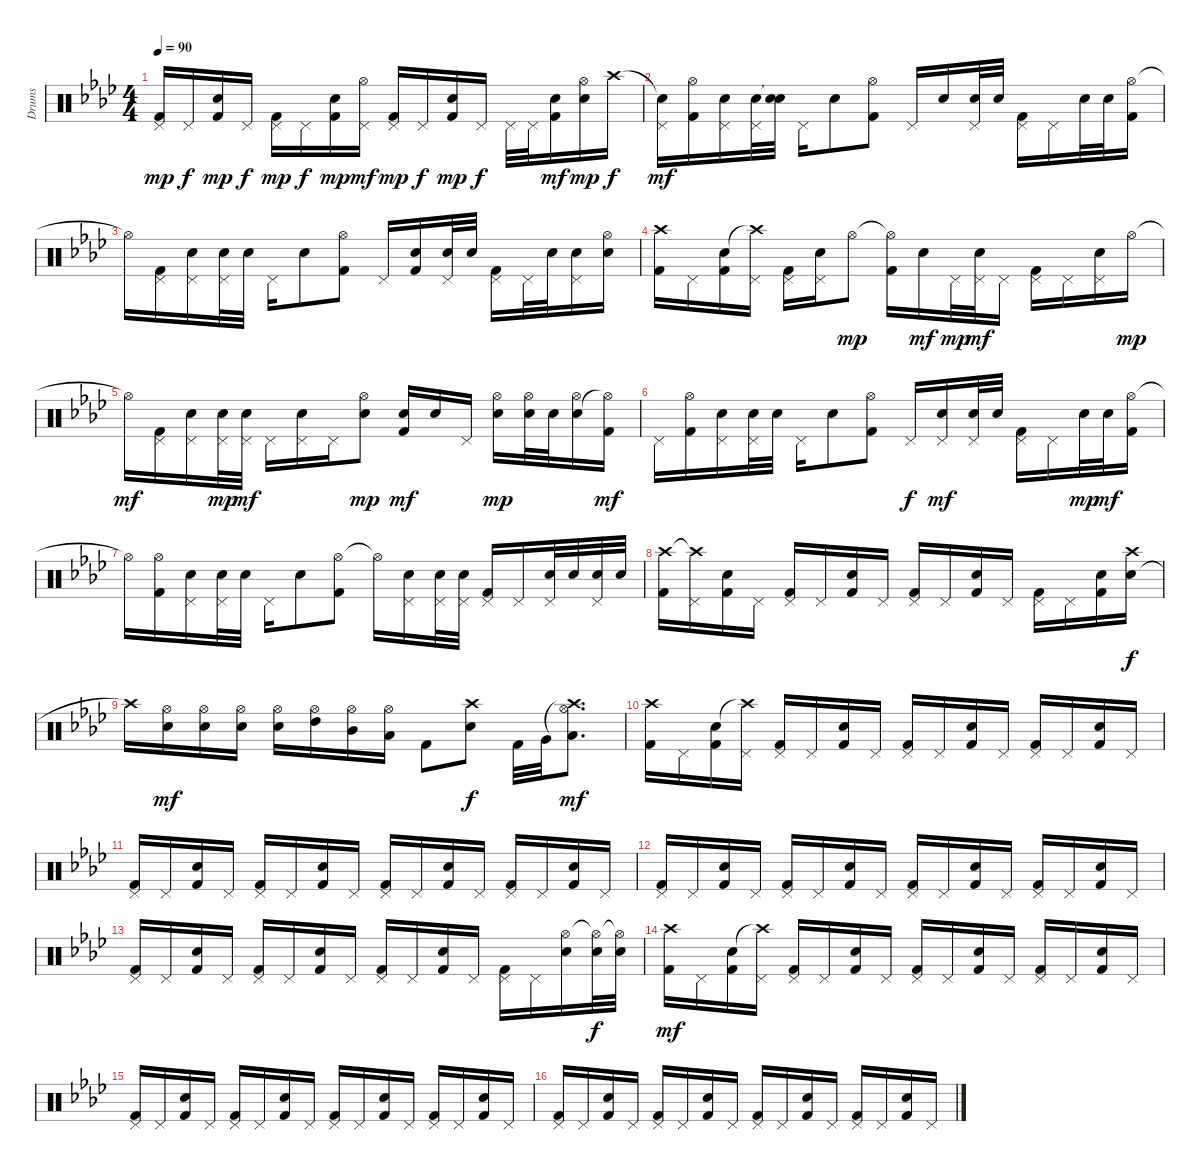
\track ("Drums" "Drums") {instrument percussion}
\staff {score}
\articulation defaults
\ts (4 4)
\tempo 90
\clef neutral
\ks ab
("Pedal Hi-Hat (hit)" "Kick (hit) 2").16{dy mp} "Pedal Hi-Hat (hit)".16{dy f} ("Snare (hit) 2" "Kick (hit) 2").16{dy mp} "Pedal Hi-Hat (hit)".16{dy f} ("Pedal Hi-Hat (hit)" "Kick (hit) 2").16{dy mp} "Pedal Hi-Hat (hit)".16{dy f} ("Snare (hit) 2" "Kick (hit) 2").16{dy mp} ("Hi-Hat (open)" "Pedal Hi-Hat (hit)").16{dy mf} ("Pedal Hi-Hat (hit)" "Kick (hit) 2").16{dy mp} "Pedal Hi-Hat (hit)".16{dy f} ("Snare (hit) 2" "Kick (hit) 2").16{dy mp} "Pedal Hi-Hat (hit)".16{dy f} "Pedal Hi-Hat (hit)".32 "Pedal Hi-Hat (hit)".32 ("Snare (hit) 2" "Kick (hit) 2").16{dy mf} ("Snare (hit) 2" "Hi-Hat (open)").16{dy mp} "Crash high (hit)".16{dy f} |
("Snare (hit)"{t} "Pedal Hi-Hat (hit)").16{dy mf} ("Hi-Hat (open)" "Kick (hit) 2").16 ("Snare (hit) 2" "Pedal Hi-Hat (hit)").16 ("Snare (hit) 2" "Pedal Hi-Hat (hit)").32 ("Snare (hit)"{t} "Snare (hit) 2").32 "Pedal Hi-Hat (hit)".16 "Snare (hit) 2".8 ("Hi-Hat (open)" "Kick (hit) 2").8 "Pedal Hi-Hat (hit)".16 "Snare (hit) 2".16 ("Snare (hit) 2" "Pedal Hi-Hat (hit)").32 "Snare (hit) 2".32 ("Pedal Hi-Hat (hit)" "Kick (hit) 2").16 "Pedal Hi-Hat (hit)".16 "Snare (hit) 2".32 "Snare (hit) 2".32 ("Hi-Hat (open)" "Kick (hit) 2").16 |
"Hi-Hat (open)"{t}.16 ("Pedal Hi-Hat (hit)" "Kick (hit) 2").16 ("Snare (hit) 2" "Pedal Hi-Hat (hit)").16 ("Snare (hit) 2" "Pedal Hi-Hat (hit)").32 "Snare (hit) 2".32 "Pedal Hi-Hat (hit)".16 "Snare (hit) 2".8 ("Hi-Hat (open)" "Kick (hit) 2").8 "Pedal Hi-Hat (hit)".16 ("Snare (hit) 2" "Kick (hit) 2").16 ("Snare (hit) 2" "Pedal Hi-Hat (hit)").32 "Snare (hit) 2".32 ("Pedal Hi-Hat (hit)" "Kick (hit) 2").16 "Pedal Hi-Hat (hit)".32 "Snare (hit) 2".32 ("Snare (hit) 2" "Pedal Hi-Hat (hit)").16 ("Snare (hit) 2" "Hi-Hat (open)").16 |
("Crash high (hit)" "Kick (hit) 2").16 "Pedal Hi-Hat (hit)".16 ("Snare (hit) 2" "Kick (hit) 2").16 ("Crash high (hit)"{t} "Pedal Hi-Hat (hit)").16 ("Pedal Hi-Hat (hit)" "Kick (hit) 2").16 ("Snare (hit) 2" "Pedal Hi-Hat (hit)").16 "Hi-Hat (open)".8{dy mp} ("Hi-Hat (open)"{t} "Kick (hit) 2").16 "Snare (hit) 2".16{dy mf} "Pedal Hi-Hat (hit)".32{dy mp} ("Snare (hit) 2" "Pedal Hi-Hat (hit)").32{dy mf} "Pedal Hi-Hat (hit)".16 ("Pedal Hi-Hat (hit)" "Kick (hit) 2").16 "Pedal Hi-Hat (hit)".16 ("Snare (hit) 2" "Pedal Hi-Hat (hit)").16 "Hi-Hat (open)".16{dy mp} |
"Hi-Hat (open)"{t}.16{dy mf} ("Pedal Hi-Hat (hit)" "Kick (hit) 2").16 ("Snare (hit) 2" "Pedal Hi-Hat (hit)").16 ("Snare (hit) 2" "Pedal Hi-Hat (hit)").32{dy mp} ("Snare (hit) 2" "Pedal Hi-Hat (hit)").32{dy mf} "Pedal Hi-Hat (hit)".16 ("Snare (hit) 2" "Pedal Hi-Hat (hit)").16 "Pedal Hi-Hat (hit)".16 ("Snare (hit) 2" "Hi-Hat (open)").8{dy mp} ("Snare (hit) 2" "Kick (hit) 2").16{dy mf} "Snare (hit) 2".16 "Pedal Hi-Hat (hit)".16 ("Snare (hit) 2" "Hi-Hat (open)").16{dy mp} ("Snare (hit) 2" "Hi-Hat (open)").32 "Snare (hit) 2".32 ("Snare (hit) 2" "Hi-Hat (open)").16 ("Hi-Hat (open)"{t} "Kick (hit) 2").16{dy mf} |
"Pedal Hi-Hat (hit)".16 ("Hi-Hat (open)" "Kick (hit) 2").16 ("Snare (hit) 2" "Pedal Hi-Hat (hit)").16 ("Snare (hit) 2" "Pedal Hi-Hat (hit)").32 "Snare (hit) 2".32 "Pedal Hi-Hat (hit)".16 "Snare (hit) 2".8 ("Hi-Hat (open)" "Kick (hit) 2").8 "Pedal Hi-Hat (hit)".16{dy f} ("Snare (hit) 2" "Pedal Hi-Hat (hit)").16{dy mf} ("Snare (hit) 2" "Pedal Hi-Hat (hit)").32 "Snare (hit) 2".32 ("Pedal Hi-Hat (hit)" "Kick (hit) 2").16 "Pedal Hi-Hat (hit)".16 "Snare (hit) 2".32{dy mp} "Snare (hit) 2".32{dy mf} ("Hi-Hat (open)" "Kick (hit) 2").16 |
"Hi-Hat (open)"{t}.16 ("Hi-Hat (open)" "Kick (hit) 2").16 ("Snare (hit) 2" "Pedal Hi-Hat (hit)").16 ("Snare (hit) 2" "Pedal Hi-Hat (hit)").32 "Snare (hit) 2".32 "Pedal Hi-Hat (hit)".16 "Snare (hit) 2".8 ("Hi-Hat (open)" "Kick (hit) 2").8 "Hi-Hat (open)"{t}.16 ("Snare (hit) 2" "Pedal Hi-Hat (hit)").16 ("Snare (hit) 2" "Pedal Hi-Hat (hit)").32 ("Snare (hit) 2" "Pedal Hi-Hat (hit)").32 ("Pedal Hi-Hat (hit)" "Kick (hit) 2").16 "Pedal Hi-Hat (hit)".16 ("Snare (hit) 2" "Pedal Hi-Hat (hit)").32 "Snare (hit) 2".32 ("Snare (hit) 2" "Pedal Hi-Hat (hit)").32 "Snare (hit) 2".32 |
("Crash high (hit)" "Kick (hit) 2").16 ("Crash high (hit)"{t} "Pedal Hi-Hat (hit)").16 ("Snare (hit) 2" "Kick (hit) 2").16 "Pedal Hi-Hat (hit)".16 ("Pedal Hi-Hat (hit)" "Kick (hit) 2").16 "Pedal Hi-Hat (hit)".16 ("Snare (hit) 2" "Kick (hit) 2").16 "Pedal Hi-Hat (hit)".16 ("Pedal Hi-Hat (hit)" "Kick (hit) 2").16 "Pedal Hi-Hat (hit)".16 ("Snare (hit) 2" "Kick (hit) 2").16 "Pedal Hi-Hat (hit)".16 ("Pedal Hi-Hat (hit)" "Kick (hit) 2").16 "Pedal Hi-Hat (hit)".16 ("Snare (hit) 2" "Kick (hit) 2").16 ("Snare (hit) 2" "Crash high (hit)").16{dy f} |
"Crash high (hit)"{t}.16 ("Snare (hit) 2" "Hi-Hat (open)").16{dy mf} ("Snare (hit) 2" "Hi-Hat (open)").16 ("Hi-Hat (open)" "Snare (hit) 2").16 ("Snare (hit) 2" "Hi-Hat (open)").16 ("Hi-Hat (open)" "High Tom (hit)").16 ("Hi-Hat (open)" "Mid Tom (hit)").16 ("Hi-Hat (open)" "Low Tom (hit)").16 "Kick (hit) 2".8 ("Crash high (hit)" "Snare (hit) 2").8{dy f} "Kick (hit) 2".32 "Very Low Tom (hit)".32 ("Crash high (hit)"{t} "Hi-Hat (open)" "Low Floor Tom (hit)").8{d dy mf} |
("Crash high (hit)" "Kick (hit) 2").16 "Pedal Hi-Hat (hit)".16 ("Snare (hit) 2" "Kick (hit) 2").16 ("Crash high (hit)"{t} "Pedal Hi-Hat (hit)").16 ("Pedal Hi-Hat (hit)" "Kick (hit) 2").16 "Pedal Hi-Hat (hit)".16 ("Snare (hit) 2" "Kick (hit) 2").16 "Pedal Hi-Hat (hit)".16 ("Pedal Hi-Hat (hit)" "Kick (hit) 2").16 "Pedal Hi-Hat (hit)".16 ("Snare (hit) 2" "Kick (hit) 2").16 "Pedal Hi-Hat (hit)".16 ("Pedal Hi-Hat (hit)" "Kick (hit) 2").16 "Pedal Hi-Hat (hit)".16 ("Snare (hit) 2" "Kick (hit) 2").16 "Pedal Hi-Hat (hit)".16 |
("Pedal Hi-Hat (hit)" "Kick (hit) 2").16 "Pedal Hi-Hat (hit)".16 ("Snare (hit) 2" "Kick (hit) 2").16 "Pedal Hi-Hat (hit)".16 ("Pedal Hi-Hat (hit)" "Kick (hit) 2").16 "Pedal Hi-Hat (hit)".16 ("Snare (hit) 2" "Kick (hit) 2").16 "Pedal Hi-Hat (hit)".16 ("Pedal Hi-Hat (hit)" "Kick (hit) 2").16 "Pedal Hi-Hat (hit)".16 ("Snare (hit) 2" "Kick (hit) 2").16 "Pedal Hi-Hat (hit)".16 ("Pedal Hi-Hat (hit)" "Kick (hit) 2").16 "Pedal Hi-Hat (hit)".16 ("Snare (hit) 2" "Kick (hit) 2").16 "Pedal Hi-Hat (hit)".16 |
("Pedal Hi-Hat (hit)" "Kick (hit) 2").16 "Pedal Hi-Hat (hit)".16 ("Snare (hit) 2" "Kick (hit) 2").16 "Pedal Hi-Hat (hit)".16 ("Pedal Hi-Hat (hit)" "Kick (hit) 2").16 "Pedal Hi-Hat (hit)".16 ("Snare (hit) 2" "Kick (hit) 2").16 "Pedal Hi-Hat (hit)".16 ("Pedal Hi-Hat (hit)" "Kick (hit) 2").16 "Pedal Hi-Hat (hit)".16 ("Snare (hit) 2" "Kick (hit) 2").16 "Pedal Hi-Hat (hit)".16 ("Pedal Hi-Hat (hit)" "Kick (hit) 2").16 "Pedal Hi-Hat (hit)".16 ("Snare (hit) 2" "Kick (hit) 2").16 "Pedal Hi-Hat (hit)".16 |
("Pedal Hi-Hat (hit)" "Kick (hit) 2").16 "Pedal Hi-Hat (hit)".16 ("Snare (hit) 2" "Kick (hit) 2").16 "Pedal Hi-Hat (hit)".16 ("Pedal Hi-Hat (hit)" "Kick (hit) 2").16 "Pedal Hi-Hat (hit)".16 ("Snare (hit) 2" "Kick (hit) 2").16 "Pedal Hi-Hat (hit)".16 ("Pedal Hi-Hat (hit)" "Kick (hit) 2").16 "Pedal Hi-Hat (hit)".16 ("Snare (hit) 2" "Kick (hit) 2").16 "Pedal Hi-Hat (hit)".16 ("Pedal Hi-Hat (hit)" "Kick (hit) 2").16 "Pedal Hi-Hat (hit)".16 ("Snare (hit) 2" "Hi-Hat (open)").16 ("Snare (hit) 2" "Hi-Hat (open)"{t}).32{dy f} ("Snare (hit) 2" "Hi-Hat (open)"{t}).32 |
("Crash high (hit)" "Kick (hit) 2").16{dy mf} "Pedal Hi-Hat (hit)".16 ("Snare (hit) 2" "Kick (hit) 2").16 ("Crash high (hit)"{t} "Pedal Hi-Hat (hit)").16 ("Pedal Hi-Hat (hit)" "Kick (hit) 2").16 "Pedal Hi-Hat (hit)".16 ("Snare (hit) 2" "Kick (hit) 2").16 "Pedal Hi-Hat (hit)".16 ("Pedal Hi-Hat (hit)" "Kick (hit) 2").16 "Pedal Hi-Hat (hit)".16 ("Snare (hit) 2" "Kick (hit) 2").16 "Pedal Hi-Hat (hit)".16 ("Pedal Hi-Hat (hit)" "Kick (hit) 2").16 "Pedal Hi-Hat (hit)".16 ("Snare (hit) 2" "Kick (hit) 2").16 "Pedal Hi-Hat (hit)".16 |
("Pedal Hi-Hat (hit)" "Kick (hit) 2").16 "Pedal Hi-Hat (hit)".16 ("Snare (hit) 2" "Kick (hit) 2").16 "Pedal Hi-Hat (hit)".16 ("Pedal Hi-Hat (hit)" "Kick (hit) 2").16 "Pedal Hi-Hat (hit)".16 ("Snare (hit) 2" "Kick (hit) 2").16 "Pedal Hi-Hat (hit)".16 ("Pedal Hi-Hat (hit)" "Kick (hit) 2").16 "Pedal Hi-Hat (hit)".16 ("Snare (hit) 2" "Kick (hit) 2").16 "Pedal Hi-Hat (hit)".16 ("Pedal Hi-Hat (hit)" "Kick (hit) 2").16 "Pedal Hi-Hat (hit)".16 ("Snare (hit) 2" "Kick (hit) 2").16 "Pedal Hi-Hat (hit)".16 |
("Pedal Hi-Hat (hit)" "Kick (hit) 2").16 "Pedal Hi-Hat (hit)".16 ("Snare (hit) 2" "Kick (hit) 2").16 "Pedal Hi-Hat (hit)".16 ("Pedal Hi-Hat (hit)" "Kick (hit) 2").16 "Pedal Hi-Hat (hit)".16 ("Snare (hit) 2" "Kick (hit) 2").16 "Pedal Hi-Hat (hit)".16 ("Pedal Hi-Hat (hit)" "Kick (hit) 2").16 "Pedal Hi-Hat (hit)".16 ("Snare (hit) 2" "Kick (hit) 2").16 "Pedal Hi-Hat (hit)".16 ("Pedal Hi-Hat (hit)" "Kick (hit) 2").16 "Pedal Hi-Hat (hit)".16 ("Snare (hit) 2" "Kick (hit) 2").16 "Pedal Hi-Hat (hit)".16
